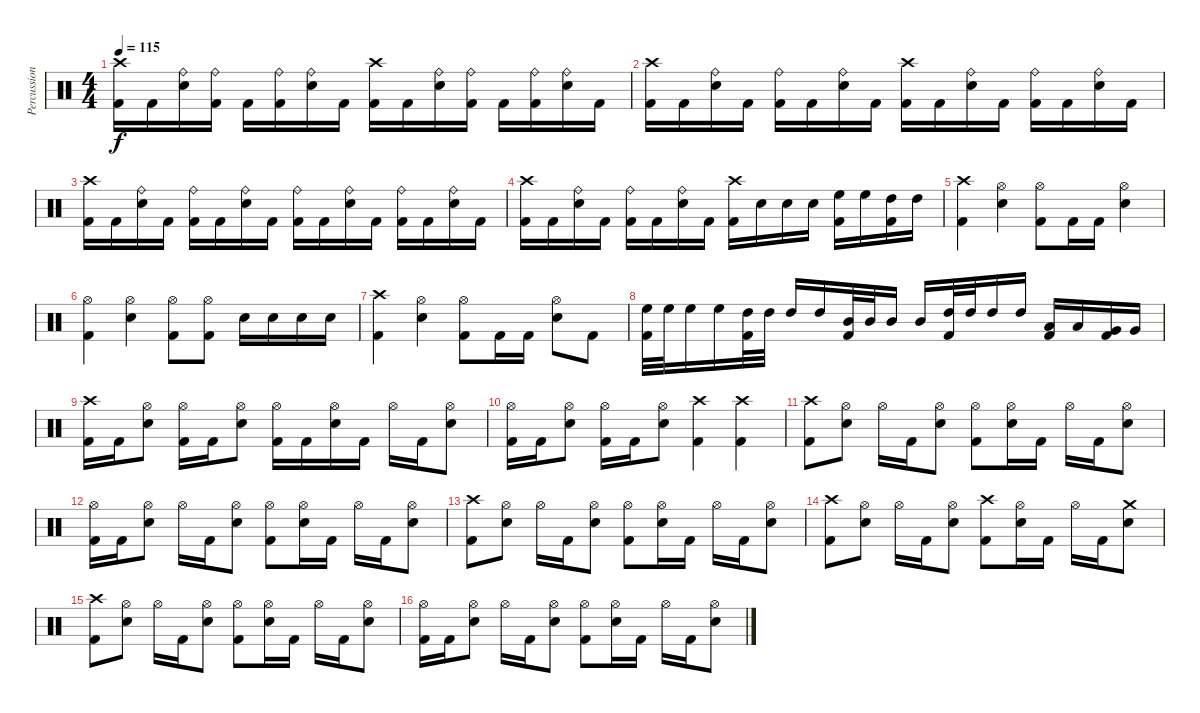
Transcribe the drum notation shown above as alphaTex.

\track ("Percussion" "Percussion") {instrument percussion}
\staff {score}
\articulation defaults
\ts (4 4)
\tempo 115
\clef neutral
\ks c
("Kick (hit) 2" "Crash high (hit)").16{dy f} "Kick (hit) 2".16 ("Electric Snare (hit)" "Ride (bell)").16 ("Kick (hit) 2" "Ride (bell)").16 "Kick (hit) 2".16 ("Kick (hit) 2" "Ride (bell)").16 ("Electric Snare (hit)" "Ride (bell)").16 "Kick (hit) 2".16 ("Kick (hit) 2" "Crash high (hit)").16 "Kick (hit) 2".16 ("Electric Snare (hit)" "Ride (bell)").16 ("Kick (hit) 2" "Ride (bell)").16 "Kick (hit) 2".16 ("Kick (hit) 2" "Ride (bell)").16 ("Electric Snare (hit)" "Ride (bell)").16 "Kick (hit) 2".16 |
("Kick (hit) 2" "Crash high (hit)").16 "Kick (hit) 2".16 ("Electric Snare (hit)" "Ride (bell)").16 "Kick (hit) 2".16 ("Kick (hit) 2" "Ride (bell)").16 "Kick (hit) 2".16 ("Electric Snare (hit)" "Ride (bell)").16 "Kick (hit) 2".16 ("Kick (hit) 2" "Crash high (hit)").16 "Kick (hit) 2".16 ("Electric Snare (hit)" "Ride (bell)").16 "Kick (hit) 2".16 ("Kick (hit) 2" "Ride (bell)").16 "Kick (hit) 2".16 ("Electric Snare (hit)" "Ride (bell)").16 "Kick (hit) 2".16 |
("Kick (hit) 2" "Crash high (hit)").16 "Kick (hit) 2".16 ("Electric Snare (hit)" "Ride (bell)").16 "Kick (hit) 2".16 ("Kick (hit) 2" "Ride (bell)").16 "Kick (hit) 2".16 ("Electric Snare (hit)" "Ride (bell)").16 "Kick (hit) 2".16 ("Kick (hit) 2" "Ride (bell)").16 "Kick (hit) 2".16 ("Electric Snare (hit)" "Ride (bell)").16 "Kick (hit) 2".16 ("Kick (hit) 2" "Ride (bell)").16 "Kick (hit) 2".16 ("Electric Snare (hit)" "Ride (bell)").16 "Kick (hit) 2".16 |
("Kick (hit) 2" "Crash high (hit)").16 "Kick (hit) 2".16 ("Electric Snare (hit)" "Ride (bell)").16 "Kick (hit) 2".16 ("Kick (hit) 2" "Ride (bell)").16 "Kick (hit) 2".16 ("Electric Snare (hit)" "Ride (bell)").16 "Kick (hit) 2".16 ("Kick (hit) 2" "Crash high (hit)").16 "Electric Snare (hit)".16 "Electric Snare (hit)".16 "Electric Snare (hit)".16 ("High Floor Tom (hit)" "Kick (hit) 2").16 "High Floor Tom (hit)".16 ("High Tom (hit)" "Kick (hit) 2").16 "High Tom (hit)".16 |
("Kick (hit) 2" "Crash high (hit)").4 ("Electric Snare (hit)" "Hi-Hat (open)").4 ("Kick (hit) 2" "Hi-Hat (open)").8 "Kick (hit) 2".16 "Kick (hit) 2".16 ("Electric Snare (hit)" "Hi-Hat (open)").4 |
("Kick (hit) 2" "Hi-Hat (open)").4 ("Electric Snare (hit)" "Hi-Hat (open)").4 ("Kick (hit) 2" "Hi-Hat (open)").8 ("Kick (hit) 2" "Hi-Hat (open)").8 "Electric Snare (hit)".16 "Electric Snare (hit)".16 "Electric Snare (hit)".16 "Electric Snare (hit)".16 |
("Kick (hit) 2" "Crash high (hit)").4 ("Electric Snare (hit)" "Hi-Hat (open)").4 ("Kick (hit) 2" "Hi-Hat (open)").8 "Kick (hit) 2".16 "Kick (hit) 2".16 ("Electric Snare (hit)" "Hi-Hat (open)").8 "Kick (hit) 2".8 |
("High Floor Tom (hit)" "Kick (hit) 2").32 "High Floor Tom (hit)".32 "High Floor Tom (hit)".16 "High Floor Tom (hit)".16 ("High Tom (hit)" "Kick (hit) 2").32 "High Tom (hit)".32 "High Tom (hit)".16 "High Tom (hit)".16 ("Mid Tom (hit)" "Kick (hit) 2").32 "Mid Tom (hit)".32 "Mid Tom (hit)".16 "Mid Tom (hit)".16 ("High Tom (hit)" "Kick (hit) 2").32 "High Tom (hit)".32 "High Tom (hit)".16 "High Tom (hit)".16 ("Low Tom (hit)" "Kick (hit) 2").16 "Low Tom (hit)".16 ("Very Low Tom (hit)" "Kick (hit) 2").16 "Very Low Tom (hit)".16 |
("Kick (hit) 2" "Crash high (hit)").16 "Kick (hit) 2".16 ("Electric Snare (hit)" "Hi-Hat (open)").8 ("Kick (hit) 2" "Hi-Hat (open)").16 "Kick (hit) 2".16 ("Electric Snare (hit)" "Hi-Hat (open)").8 ("Kick (hit) 2" "Hi-Hat (open)").16 "Kick (hit) 2".16 ("Electric Snare (hit)" "Hi-Hat (open)").16 "Kick (hit) 2".16 "Hi-Hat (open)".16 "Kick (hit) 2".16 ("Electric Snare (hit)" "Hi-Hat (open)").8 |
("Kick (hit) 2" "Hi-Hat (open)").16 "Kick (hit) 2".16 ("Electric Snare (hit)" "Hi-Hat (open)").8 ("Kick (hit) 2" "Hi-Hat (open)").16 "Kick (hit) 2".16 ("Electric Snare (hit)" "Hi-Hat (open)").8 ("Kick (hit) 2" "Crash high (hit)").4 ("Kick (hit) 2" "Crash high (hit)").4 |
("Kick (hit) 2" "Crash high (hit)").8 ("Electric Snare (hit)" "Hi-Hat (open)").8 "Hi-Hat (open)".16 "Kick (hit) 2".16 ("Electric Snare (hit)" "Hi-Hat (open)").8 ("Kick (hit) 2" "Hi-Hat (open)").8 ("Electric Snare (hit)" "Hi-Hat (open)").16 "Kick (hit) 2".16 "Hi-Hat (open)".16 "Kick (hit) 2".16 ("Electric Snare (hit)" "Hi-Hat (open)").8 |
("Kick (hit) 2" "Hi-Hat (open)").16 "Kick (hit) 2".16 ("Electric Snare (hit)" "Hi-Hat (open)").8 "Hi-Hat (open)".16 "Kick (hit) 2".16 ("Electric Snare (hit)" "Hi-Hat (open)").8 ("Kick (hit) 2" "Hi-Hat (open)").8 ("Electric Snare (hit)" "Hi-Hat (open)").16 "Kick (hit) 2".16 "Hi-Hat (open)".16 "Kick (hit) 2".16 ("Electric Snare (hit)" "Hi-Hat (open)").8 |
("Kick (hit) 2" "Crash high (hit)").8 ("Electric Snare (hit)" "Hi-Hat (open)").8 "Hi-Hat (open)".16 "Kick (hit) 2".16 ("Electric Snare (hit)" "Hi-Hat (open)").8 ("Kick (hit) 2" "Hi-Hat (open)").8 ("Electric Snare (hit)" "Hi-Hat (open)").16 "Kick (hit) 2".16 "Hi-Hat (open)".16 "Kick (hit) 2".16 ("Electric Snare (hit)" "Hi-Hat (open)").8 |
("Kick (hit) 2" "Crash high (hit)").8 ("Electric Snare (hit)" "Hi-Hat (open)").8 "Hi-Hat (open)".16 "Kick (hit) 2".16 ("Electric Snare (hit)" "Hi-Hat (open)").8 ("Kick (hit) 2" "Crash high (hit)").8 ("Electric Snare (hit)" "Hi-Hat (open)").16 "Kick (hit) 2".16 "Hi-Hat (open)".16 "Kick (hit) 2".16 ("Electric Snare (hit)" "Crash medium (hit)").8 |
("Kick (hit) 2" "Crash high (hit)").8 ("Electric Snare (hit)" "Hi-Hat (open)").8 "Hi-Hat (open)".16 "Kick (hit) 2".16 ("Electric Snare (hit)" "Hi-Hat (open)").8 ("Kick (hit) 2" "Hi-Hat (open)").8 ("Electric Snare (hit)" "Hi-Hat (open)").16 "Kick (hit) 2".16 "Hi-Hat (open)".16 "Kick (hit) 2".16 ("Electric Snare (hit)" "Hi-Hat (open)").8 |
("Kick (hit) 2" "Hi-Hat (open)").16 "Kick (hit) 2".16 ("Electric Snare (hit)" "Hi-Hat (open)").8 "Hi-Hat (open)".16 "Kick (hit) 2".16 ("Electric Snare (hit)" "Hi-Hat (open)").8 ("Kick (hit) 2" "Hi-Hat (open)").8 ("Electric Snare (hit)" "Hi-Hat (open)").16 "Kick (hit) 2".16 "Hi-Hat (open)".16 "Kick (hit) 2".16 ("Electric Snare (hit)" "Hi-Hat (open)").8
